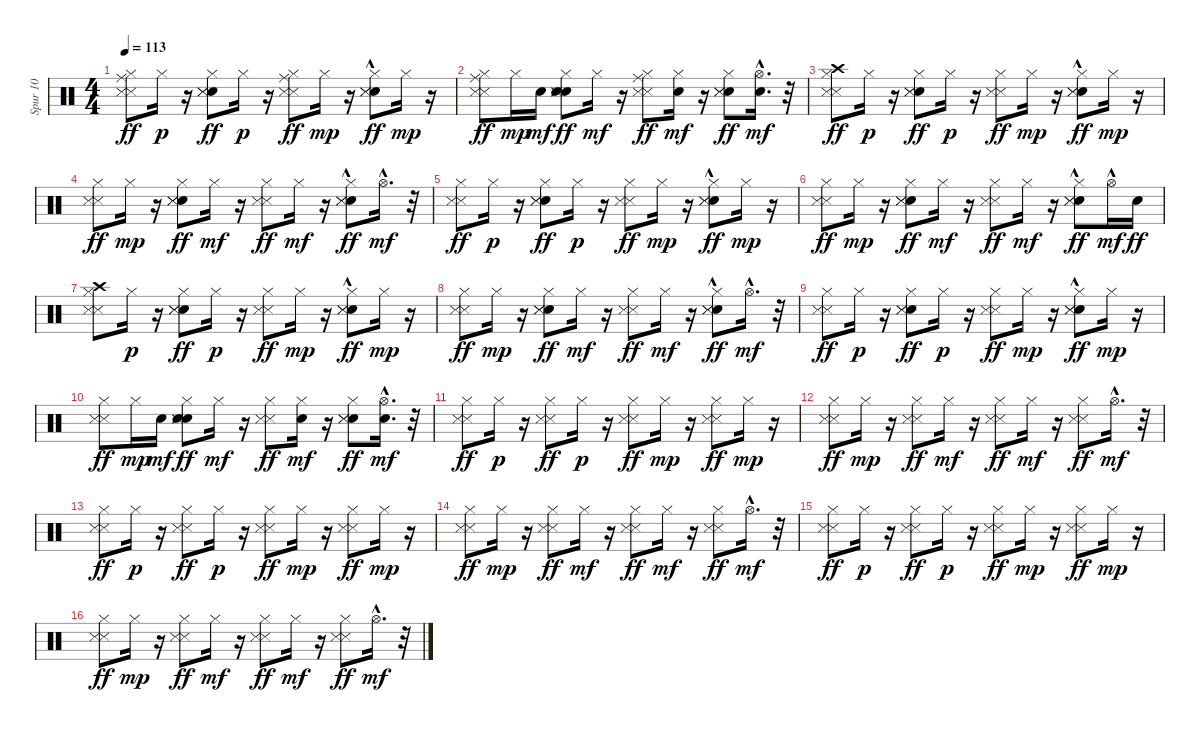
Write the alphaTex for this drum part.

\track ("Spur 10" "Spur 10") {instrument percussion}
\staff {score}
\articulation defaults
\ts (4 4)
\tempo 113
\clef neutral
\ks c
("Ride (middle)" "Hi-Hat (closed)" "Snare (side stick) 3" "Snare (side stick) 3").8{dy ff} "Hi-Hat (closed)".16{dy p} r.16 ("Hi-Hat (closed)" "Metronome (bell)" "Snare (side stick) 3" "Snare (side stick) 3").8{dy ff} "Hi-Hat (closed)".16{dy p} r.16 ("Hi-Hat (closed)" "Ride (middle)" "Snare (side stick) 3" "Snare (side stick) 3").8{dy ff} "Hi-Hat (closed)".16{dy mp} r.16 ("Hi-Hat (closed)" "Metronome (bell)"{hac} "Snare (side stick) 3" "Snare (side stick) 3").8{dy ff} "Hi-Hat (closed)".16{dy mp} r.16 |
("Hi-Hat (closed)" "Ride (middle)" "Snare (side stick) 3" "Snare (side stick) 3").8{dy ff} "Hi-Hat (closed)".16{dy mp} "Metronome (bell)".16{dy mf} ("Hi-Hat (closed)" "Metronome (bell)" "Metronome (bell)" "Snare (side stick) 3" "Snare (side stick) 3").8{dy ff} "Hi-Hat (closed)".16{dy mf} r.16 ("Hi-Hat (closed)" "Ride (middle)" "Snare (side stick) 3" "Snare (side stick) 3").8{dy ff} ("Metronome (bell)" "Hi-Hat (closed)").16{dy mf} r.16 ("Metronome (bell)" "Snare (side stick) 3" "Snare (side stick) 3" "Hi-Hat (closed)").8{dy ff} ("Metronome (bell)" "Hi-Hat (open)"{hac}).16{d dy mf} r.32 |
("Crash high (hit)" "Hi-Hat (closed)" "Snare (side stick) 3" "Snare (side stick) 3").8{dy ff} "Hi-Hat (closed)".16{dy p} r.16 ("Hi-Hat (closed)" "Metronome (bell)" "Snare (side stick) 3" "Snare (side stick) 3").8{dy ff} "Hi-Hat (closed)".16{dy p} r.16 ("Hi-Hat (closed)" "Snare (side stick) 3" "Snare (side stick) 3").8{dy ff} "Hi-Hat (closed)".16{dy mp} r.16 ("Hi-Hat (closed)" "Metronome (bell)"{hac} "Snare (side stick) 3" "Snare (side stick) 3").8{dy ff} "Hi-Hat (closed)".16{dy mp} r.16 |
("Hi-Hat (closed)" "Snare (side stick) 3" "Snare (side stick) 3").8{dy ff} "Hi-Hat (closed)".16{dy mp} r.16 ("Hi-Hat (closed)" "Metronome (bell)" "Snare (side stick) 3" "Snare (side stick) 3").8{dy ff} "Hi-Hat (closed)".16{dy mf} r.16 ("Hi-Hat (closed)" "Snare (side stick) 3" "Snare (side stick) 3").8{dy ff} "Hi-Hat (closed)".16{dy mf} r.16 ("Metronome (bell)"{hac} "Snare (side stick) 3" "Snare (side stick) 3" "Hi-Hat (closed)").8{dy ff} "Hi-Hat (open)"{hac}.16{d dy mf} r.32 |
("Hi-Hat (closed)" "Snare (side stick) 3" "Snare (side stick) 3").8{dy ff} "Hi-Hat (closed)".16{dy p} r.16 ("Hi-Hat (closed)" "Metronome (bell)" "Snare (side stick) 3" "Snare (side stick) 3").8{dy ff} "Hi-Hat (closed)".16{dy p} r.16 ("Hi-Hat (closed)" "Snare (side stick) 3" "Snare (side stick) 3").8{dy ff} "Hi-Hat (closed)".16{dy mp} r.16 ("Hi-Hat (closed)" "Metronome (bell)"{hac} "Snare (side stick) 3" "Snare (side stick) 3").8{dy ff} "Hi-Hat (closed)".16{dy mp} r.16 |
("Hi-Hat (closed)" "Snare (side stick) 3" "Snare (side stick) 3").8{dy ff} "Hi-Hat (closed)".16{dy mp} r.16 ("Hi-Hat (closed)" "Metronome (bell)" "Snare (side stick) 3" "Snare (side stick) 3").8{dy ff} "Hi-Hat (closed)".16{dy mf} r.16 ("Hi-Hat (closed)" "Snare (side stick) 3" "Snare (side stick) 3").8{dy ff} "Hi-Hat (closed)".16{dy mf} r.16 ("Metronome (bell)"{hac} "Snare (side stick) 3" "Snare (side stick) 3" "Hi-Hat (closed)").8{dy ff} "Hi-Hat (open)"{hac}.16{dy mf} "Metronome (bell)".16{dy ff} |
("Hi-Hat (closed)" "Snare (side stick) 3" "Snare (side stick) 3" "Crash high (hit)").8 "Hi-Hat (closed)".16{dy p} r.16 ("Hi-Hat (closed)" "Metronome (bell)" "Snare (side stick) 3" "Snare (side stick) 3").8{dy ff} "Hi-Hat (closed)".16{dy p} r.16 ("Hi-Hat (closed)" "Snare (side stick) 3" "Snare (side stick) 3").8{dy ff} "Hi-Hat (closed)".16{dy mp} r.16 ("Hi-Hat (closed)" "Metronome (bell)"{hac} "Snare (side stick) 3" "Snare (side stick) 3").8{dy ff} "Hi-Hat (closed)".16{dy mp} r.16 |
("Hi-Hat (closed)" "Snare (side stick) 3" "Snare (side stick) 3").8{dy ff} "Hi-Hat (closed)".16{dy mp} r.16 ("Hi-Hat (closed)" "Metronome (bell)" "Snare (side stick) 3" "Snare (side stick) 3").8{dy ff} "Hi-Hat (closed)".16{dy mf} r.16 ("Hi-Hat (closed)" "Snare (side stick) 3" "Snare (side stick) 3").8{dy ff} "Hi-Hat (closed)".16{dy mf} r.16 ("Metronome (bell)"{hac} "Snare (side stick) 3" "Snare (side stick) 3" "Hi-Hat (closed)").8{dy ff} "Hi-Hat (open)"{hac}.16{d dy mf} r.32 |
("Hi-Hat (closed)" "Snare (side stick) 3" "Snare (side stick) 3").8{dy ff} "Hi-Hat (closed)".16{dy p} r.16 ("Hi-Hat (closed)" "Metronome (bell)" "Snare (side stick) 3" "Snare (side stick) 3").8{dy ff} "Hi-Hat (closed)".16{dy p} r.16 ("Hi-Hat (closed)" "Snare (side stick) 3" "Snare (side stick) 3").8{dy ff} "Hi-Hat (closed)".16{dy mp} r.16 ("Hi-Hat (closed)" "Metronome (bell)"{hac} "Snare (side stick) 3" "Snare (side stick) 3").8{dy ff} "Hi-Hat (closed)".16{dy mp} r.16 |
("Hi-Hat (closed)" "Snare (side stick) 3" "Snare (side stick) 3").8{dy ff} "Hi-Hat (closed)".16{dy mp} "Metronome (bell)".16{dy mf} ("Hi-Hat (closed)" "Metronome (bell)" "Metronome (bell)" "Snare (side stick) 3" "Snare (side stick) 3").8{dy ff} "Hi-Hat (closed)".16{dy mf} r.16 ("Hi-Hat (closed)" "Snare (side stick) 3" "Snare (side stick) 3").8{dy ff} ("Metronome (bell)" "Hi-Hat (closed)").16{dy mf} r.16 ("Metronome (bell)" "Snare (side stick) 3" "Snare (side stick) 3" "Hi-Hat (closed)").8{dy ff} ("Metronome (bell)" "Hi-Hat (open)"{hac}).16{d dy mf} r.32 |
("Hi-Hat (closed)" "Snare (side stick) 3" "Snare (side stick) 3").8{dy ff} "Hi-Hat (closed)".16{dy p} r.16 ("Hi-Hat (closed)" "Snare (side stick) 3" "Snare (side stick) 3").8{dy ff} "Hi-Hat (closed)".16{dy p} r.16 ("Hi-Hat (closed)" "Snare (side stick) 3" "Snare (side stick) 3").8{dy ff} "Hi-Hat (closed)".16{dy mp} r.16 ("Hi-Hat (closed)" "Snare (side stick) 3" "Snare (side stick) 3").8{dy ff} "Hi-Hat (closed)".16{dy mp} r.16 |
("Hi-Hat (closed)" "Snare (side stick) 3" "Snare (side stick) 3").8{dy ff} "Hi-Hat (closed)".16{dy mp} r.16 ("Hi-Hat (closed)" "Snare (side stick) 3" "Snare (side stick) 3").8{dy ff} "Hi-Hat (closed)".16{dy mf} r.16 ("Hi-Hat (closed)" "Snare (side stick) 3" "Snare (side stick) 3").8{dy ff} "Hi-Hat (closed)".16{dy mf} r.16 ("Snare (side stick) 3" "Snare (side stick) 3" "Hi-Hat (closed)").8{dy ff} "Hi-Hat (open)"{hac}.16{d dy mf} r.32 |
("Hi-Hat (closed)" "Snare (side stick) 3" "Snare (side stick) 3").8{dy ff} "Hi-Hat (closed)".16{dy p} r.16 ("Hi-Hat (closed)" "Snare (side stick) 3" "Snare (side stick) 3").8{dy ff} "Hi-Hat (closed)".16{dy p} r.16 ("Hi-Hat (closed)" "Snare (side stick) 3" "Snare (side stick) 3").8{dy ff} "Hi-Hat (closed)".16{dy mp} r.16 ("Hi-Hat (closed)" "Snare (side stick) 3" "Snare (side stick) 3").8{dy ff} "Hi-Hat (closed)".16{dy mp} r.16 |
("Hi-Hat (closed)" "Snare (side stick) 3" "Snare (side stick) 3").8{dy ff} "Hi-Hat (closed)".16{dy mp} r.16 ("Hi-Hat (closed)" "Snare (side stick) 3" "Snare (side stick) 3").8{dy ff} "Hi-Hat (closed)".16{dy mf} r.16 ("Hi-Hat (closed)" "Snare (side stick) 3" "Snare (side stick) 3").8{dy ff} "Hi-Hat (closed)".16{dy mf} r.16 ("Snare (side stick) 3" "Snare (side stick) 3" "Hi-Hat (closed)").8{dy ff} "Hi-Hat (open)"{hac}.16{d dy mf} r.32 |
("Hi-Hat (closed)" "Snare (side stick) 3" "Snare (side stick) 3").8{dy ff} "Hi-Hat (closed)".16{dy p} r.16 ("Hi-Hat (closed)" "Snare (side stick) 3" "Snare (side stick) 3").8{dy ff} "Hi-Hat (closed)".16{dy p} r.16 ("Hi-Hat (closed)" "Snare (side stick) 3" "Snare (side stick) 3").8{dy ff} "Hi-Hat (closed)".16{dy mp} r.16 ("Hi-Hat (closed)" "Snare (side stick) 3" "Snare (side stick) 3").8{dy ff} "Hi-Hat (closed)".16{dy mp} r.16 |
("Hi-Hat (closed)" "Snare (side stick) 3" "Snare (side stick) 3").8{dy ff} "Hi-Hat (closed)".16{dy mp} r.16 ("Hi-Hat (closed)" "Snare (side stick) 3" "Snare (side stick) 3").8{dy ff} "Hi-Hat (closed)".16{dy mf} r.16 ("Hi-Hat (closed)" "Snare (side stick) 3" "Snare (side stick) 3").8{dy ff} "Hi-Hat (closed)".16{dy mf} r.16 ("Snare (side stick) 3" "Snare (side stick) 3" "Hi-Hat (closed)").8{dy ff} "Hi-Hat (open)"{hac}.16{d dy mf} r.32
